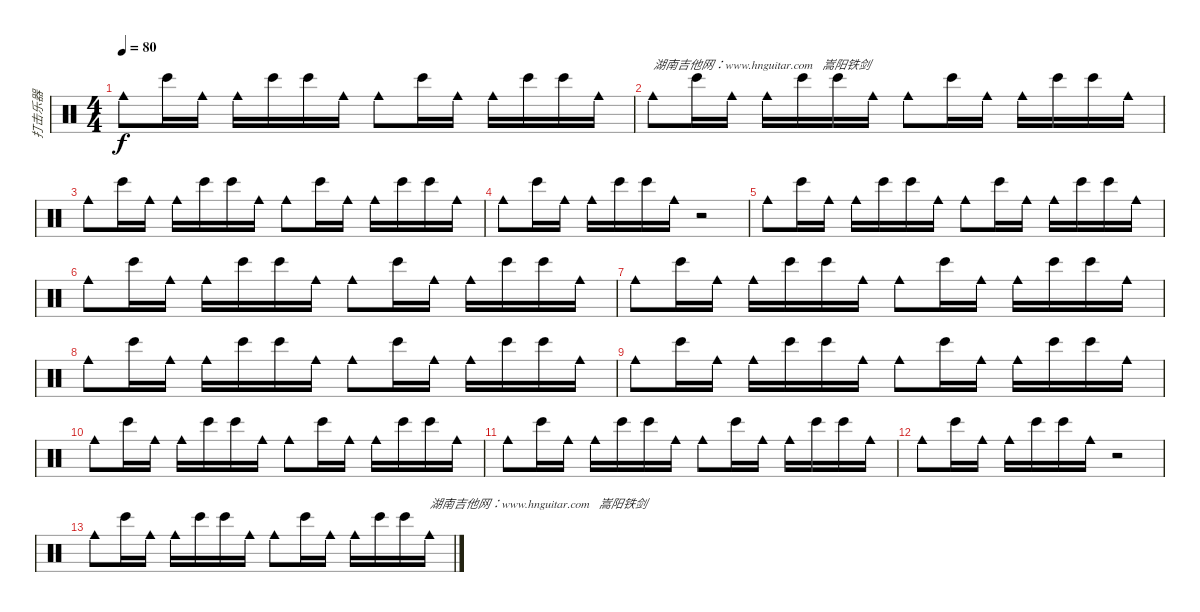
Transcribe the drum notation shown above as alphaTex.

\track ("打击乐器" "打击乐器") {instrument percussion}
\staff {score}
\articulation defaults
\ts (4 4)
\tempo 80
\clef neutral
\ks c "Cowbell medium (hit)".8{dy f} "Bongo High (hit)".16 "Cowbell medium (hit)".16 "Cowbell medium (hit)".16 "Bongo High (hit)".16 "Bongo High (hit)".16 "Cowbell medium (hit)".16 "Cowbell medium (hit)".8 "Bongo High (hit)".16 "Cowbell medium (hit)".16 "Cowbell medium (hit)".16 "Bongo High (hit)".16 "Bongo High (hit)".16 "Cowbell medium (hit)".16
|
"Cowbell medium (hit)".8{txt "湖南吉他网：www.hnguitar.com   嵩阳铁剑"} "Bongo High (hit)".16 "Cowbell medium (hit)".16 "Cowbell medium (hit)".16 "Bongo High (hit)".16 "Bongo High (hit)".16 "Cowbell medium (hit)".16 "Cowbell medium (hit)".8 "Bongo High (hit)".16 "Cowbell medium (hit)".16 "Cowbell medium (hit)".16 "Bongo High (hit)".16 "Bongo High (hit)".16 "Cowbell medium (hit)".16 |
"Cowbell medium (hit)".8 "Bongo High (hit)".16 "Cowbell medium (hit)".16 "Cowbell medium (hit)".16 "Bongo High (hit)".16 "Bongo High (hit)".16 "Cowbell medium (hit)".16 "Cowbell medium (hit)".8 "Bongo High (hit)".16 "Cowbell medium (hit)".16 "Cowbell medium (hit)".16 "Bongo High (hit)".16 "Bongo High (hit)".16 "Cowbell medium (hit)".16 |
"Cowbell medium (hit)".8 "Bongo High (hit)".16 "Cowbell medium (hit)".16 "Cowbell medium (hit)".16 "Bongo High (hit)".16 "Bongo High (hit)".16 "Cowbell medium (hit)".16 r.2 |
"Cowbell medium (hit)".8 "Bongo High (hit)".16 "Cowbell medium (hit)".16 "Cowbell medium (hit)".16 "Bongo High (hit)".16 "Bongo High (hit)".16 "Cowbell medium (hit)".16 "Cowbell medium (hit)".8 "Bongo High (hit)".16 "Cowbell medium (hit)".16 "Cowbell medium (hit)".16 "Bongo High (hit)".16 "Bongo High (hit)".16 "Cowbell medium (hit)".16 |
"Cowbell medium (hit)".8 "Bongo High (hit)".16 "Cowbell medium (hit)".16 "Cowbell medium (hit)".16 "Bongo High (hit)".16 "Bongo High (hit)".16 "Cowbell medium (hit)".16 "Cowbell medium (hit)".8 "Bongo High (hit)".16 "Cowbell medium (hit)".16 "Cowbell medium (hit)".16 "Bongo High (hit)".16 "Bongo High (hit)".16 "Cowbell medium (hit)".16 |
"Cowbell medium (hit)".8 "Bongo High (hit)".16 "Cowbell medium (hit)".16 "Cowbell medium (hit)".16 "Bongo High (hit)".16 "Bongo High (hit)".16 "Cowbell medium (hit)".16 "Cowbell medium (hit)".8 "Bongo High (hit)".16 "Cowbell medium (hit)".16 "Cowbell medium (hit)".16 "Bongo High (hit)".16 "Bongo High (hit)".16 "Cowbell medium (hit)".16 |
"Cowbell medium (hit)".8 "Bongo High (hit)".16 "Cowbell medium (hit)".16 "Cowbell medium (hit)".16 "Bongo High (hit)".16 "Bongo High (hit)".16 "Cowbell medium (hit)".16 "Cowbell medium (hit)".8 "Bongo High (hit)".16 "Cowbell medium (hit)".16 "Cowbell medium (hit)".16 "Bongo High (hit)".16 "Bongo High (hit)".16 "Cowbell medium (hit)".16 |
"Cowbell medium (hit)".8 "Bongo High (hit)".16 "Cowbell medium (hit)".16 "Cowbell medium (hit)".16 "Bongo High (hit)".16 "Bongo High (hit)".16 "Cowbell medium (hit)".16 "Cowbell medium (hit)".8 "Bongo High (hit)".16 "Cowbell medium (hit)".16 "Cowbell medium (hit)".16 "Bongo High (hit)".16 "Bongo High (hit)".16 "Cowbell medium (hit)".16 |
"Cowbell medium (hit)".8 "Bongo High (hit)".16 "Cowbell medium (hit)".16 "Cowbell medium (hit)".16 "Bongo High (hit)".16 "Bongo High (hit)".16 "Cowbell medium (hit)".16 "Cowbell medium (hit)".8 "Bongo High (hit)".16 "Cowbell medium (hit)".16 "Cowbell medium (hit)".16 "Bongo High (hit)".16 "Bongo High (hit)".16 "Cowbell medium (hit)".16 |
"Cowbell medium (hit)".8 "Bongo High (hit)".16 "Cowbell medium (hit)".16 "Cowbell medium (hit)".16 "Bongo High (hit)".16 "Bongo High (hit)".16 "Cowbell medium (hit)".16 "Cowbell medium (hit)".8 "Bongo High (hit)".16 "Cowbell medium (hit)".16 "Cowbell medium (hit)".16 "Bongo High (hit)".16 "Bongo High (hit)".16 "Cowbell medium (hit)".16 |
"Cowbell medium (hit)".8 "Bongo High (hit)".16 "Cowbell medium (hit)".16 "Cowbell medium (hit)".16 "Bongo High (hit)".16 "Bongo High (hit)".16 "Cowbell medium (hit)".16 r.2 |
"Cowbell medium (hit)".8 "Bongo High (hit)".16 "Cowbell medium (hit)".16 "Cowbell medium (hit)".16 "Bongo High (hit)".16 "Bongo High (hit)".16 "Cowbell medium (hit)".16 "Cowbell medium (hit)".8 "Bongo High (hit)".16 "Cowbell medium (hit)".16 "Cowbell medium (hit)".16 "Bongo High (hit)".16 "Bongo High (hit)".16 "Cowbell medium (hit)".16{txt "湖南吉他网：www.hnguitar.com   嵩阳铁剑"}
